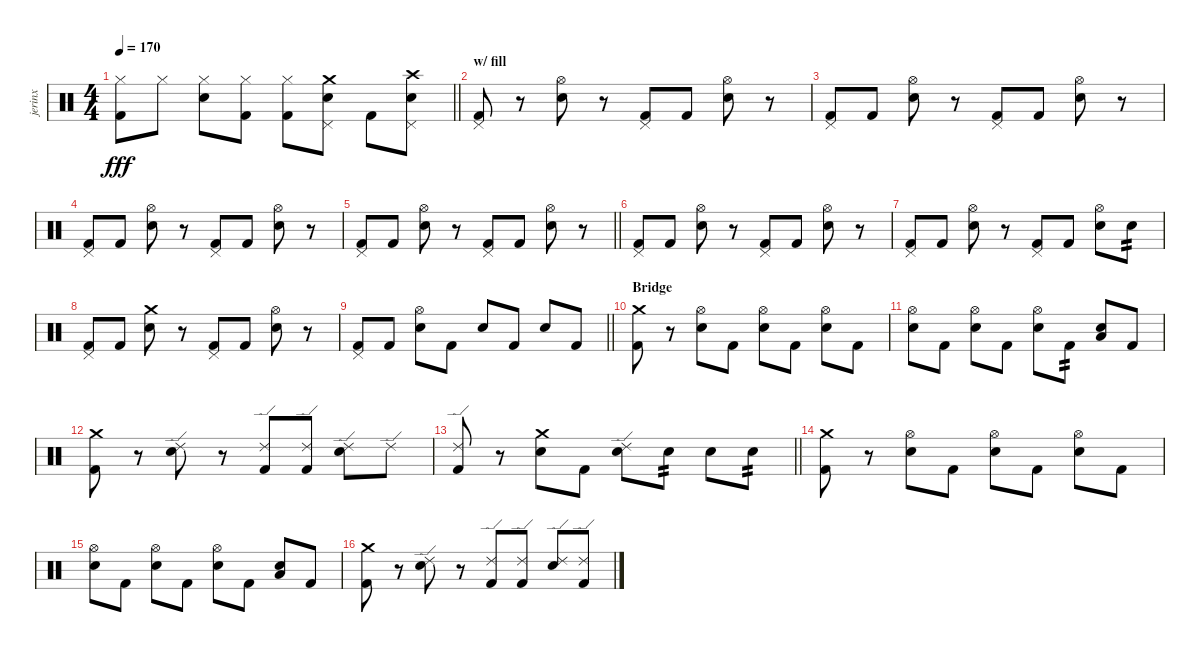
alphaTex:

\track ("jerinx" "jerinx") {instrument percussion}
\staff {score}
\articulation defaults
\ts (4 4)
\tempo 170
\clef neutral
\barLineRight lightlight
\ks c
("Hi-Hat (closed)" "Kick (hit) 2").8{dy fff} "Hi-Hat (closed)".8 ("Hi-Hat (closed)" "Snare (hit) 2").8 ("Hi-Hat (closed)" "Kick (hit) 2").8 ("Hi-Hat (closed)" "Kick (hit) 2").8 ("Pedal Hi-Hat (hit)" "Snare (hit) 2" "Crash medium (hit)").8 "Kick (hit) 2".8 ("Pedal Hi-Hat (hit)" "Snare (hit) 2" "Crash high (hit)").8 |
\section ("" "w/ fill")
("Pedal Hi-Hat (hit)" "Kick (hit) 2").8 r.8 ("Hi-Hat (open)" "Snare (hit) 2").8 r.8 ("Pedal Hi-Hat (hit)" "Kick (hit) 2").8 "Kick (hit) 2".8 ("Hi-Hat (open)" "Snare (hit) 2").8 r.8 |
("Pedal Hi-Hat (hit)" "Kick (hit) 2").8 "Kick (hit) 2".8 ("Hi-Hat (open)" "Snare (hit) 2").8 r.8 ("Pedal Hi-Hat (hit)" "Kick (hit) 2").8 "Kick (hit) 2".8 ("Hi-Hat (open)" "Snare (hit) 2").8 r.8 |
("Pedal Hi-Hat (hit)" "Kick (hit) 2").8 "Kick (hit) 2".8 ("Hi-Hat (open)" "Snare (hit) 2").8 r.8 ("Pedal Hi-Hat (hit)" "Kick (hit) 2").8 "Kick (hit) 2".8 ("Hi-Hat (open)" "Snare (hit) 2").8 r.8 |
\barLineRight lightlight
("Pedal Hi-Hat (hit)" "Kick (hit) 2").8 "Kick (hit) 2".8 ("Hi-Hat (open)" "Snare (hit) 2").8 r.8 ("Pedal Hi-Hat (hit)" "Kick (hit) 2").8 "Kick (hit) 2".8 ("Hi-Hat (open)" "Snare (hit) 2").8 r.8 |
("Pedal Hi-Hat (hit)" "Kick (hit) 2").8 "Kick (hit) 2".8 ("Hi-Hat (open)" "Snare (hit) 2").8 r.8 ("Pedal Hi-Hat (hit)" "Kick (hit) 2").8 "Kick (hit) 2".8 ("Hi-Hat (open)" "Snare (hit) 2").8 r.8 |
("Pedal Hi-Hat (hit)" "Kick (hit) 2").8 "Kick (hit) 2".8 ("Hi-Hat (open)" "Snare (hit) 2").8 r.8 ("Pedal Hi-Hat (hit)" "Kick (hit) 2").8 "Kick (hit) 2".8 ("Hi-Hat (open)" "Snare (hit) 2").8 "Snare (hit) 2".8{tp 2} |
("Pedal Hi-Hat (hit)" "Kick (hit) 2").8 "Kick (hit) 2".8 ("Snare (hit) 2" "Crash medium (hit)").8 r.8 ("Pedal Hi-Hat (hit)" "Kick (hit) 2").8 "Kick (hit) 2".8 ("Hi-Hat (open)" "Snare (hit) 2").8 r.8 |
\barLineRight lightlight
("Pedal Hi-Hat (hit)" "Kick (hit) 2").8 "Kick (hit) 2".8 ("Hi-Hat (open)" "Snare (hit) 2").8 "Kick (hit) 2".8 "Snare (hit) 2".8 "Kick (hit) 2".8 "Snare (hit) 2".8 "Kick (hit) 2".8 |
\section ("" "Bridge")
("Kick (hit) 2" "Crash medium (hit)").8 r.8 ("Hi-Hat (open)" "Snare (hit) 2").8 "Kick (hit) 2".8 ("Hi-Hat (open)" "Snare (hit) 2").8 "Kick (hit) 2".8 ("Hi-Hat (open)" "Snare (hit) 2").8 "Kick (hit) 2".8 |
("Hi-Hat (open)" "Snare (hit) 2").8 "Kick (hit) 2".8 ("Hi-Hat (open)" "Snare (hit) 2").8 "Kick (hit) 2".8 ("Hi-Hat (open)" "Snare (hit) 2").8 "Kick (hit) 2".8{tp 2} ("Snare (hit) 2" "Low Floor Tom (hit)").8 "Kick (hit) 2".8 |
("Kick (hit) 2" "Crash medium (hit)").8 r.8 ("Snare (hit) 2" "Ride (edge) 2").8 r.8 ("Kick (hit) 2" "Ride (edge) 2").8 ("Kick (hit) 2" "Ride (edge) 2").8 ("Snare (hit) 2" "Ride (edge) 2").8 "Ride (edge) 2".8 |
\barLineRight lightlight
("Kick (hit) 2" "Ride (edge) 2").8 r.8 ("Snare (hit) 2" "Crash medium (hit)").8 "Kick (hit) 2".8 ("Snare (hit) 2" "Ride (edge) 2").8 "Snare (hit) 2".8{tp 2} "Snare (hit) 2".8 "Snare (hit) 2".8{tp 2} |
("Kick (hit) 2" "Crash medium (hit)").8 r.8 ("Hi-Hat (open)" "Snare (hit) 2").8 "Kick (hit) 2".8 ("Hi-Hat (open)" "Snare (hit) 2").8 "Kick (hit) 2".8 ("Hi-Hat (open)" "Snare (hit) 2").8 "Kick (hit) 2".8 |
("Hi-Hat (open)" "Snare (hit) 2").8 "Kick (hit) 2".8 ("Hi-Hat (open)" "Snare (hit) 2").8 "Kick (hit) 2".8 ("Hi-Hat (open)" "Snare (hit) 2").8 "Kick (hit) 2".8 ("Snare (hit) 2" "Low Floor Tom (hit)").8 "Kick (hit) 2".8 |
("Kick (hit) 2" "Crash medium (hit)").8 r.8 ("Snare (hit) 2" "Ride (edge) 2").8 r.8 ("Kick (hit) 2" "Ride (edge) 2").8 ("Kick (hit) 2" "Ride (edge) 2").8 ("Snare (hit) 2" "Ride (edge) 2").8 ("Kick (hit) 2" "Ride (edge) 2").8
